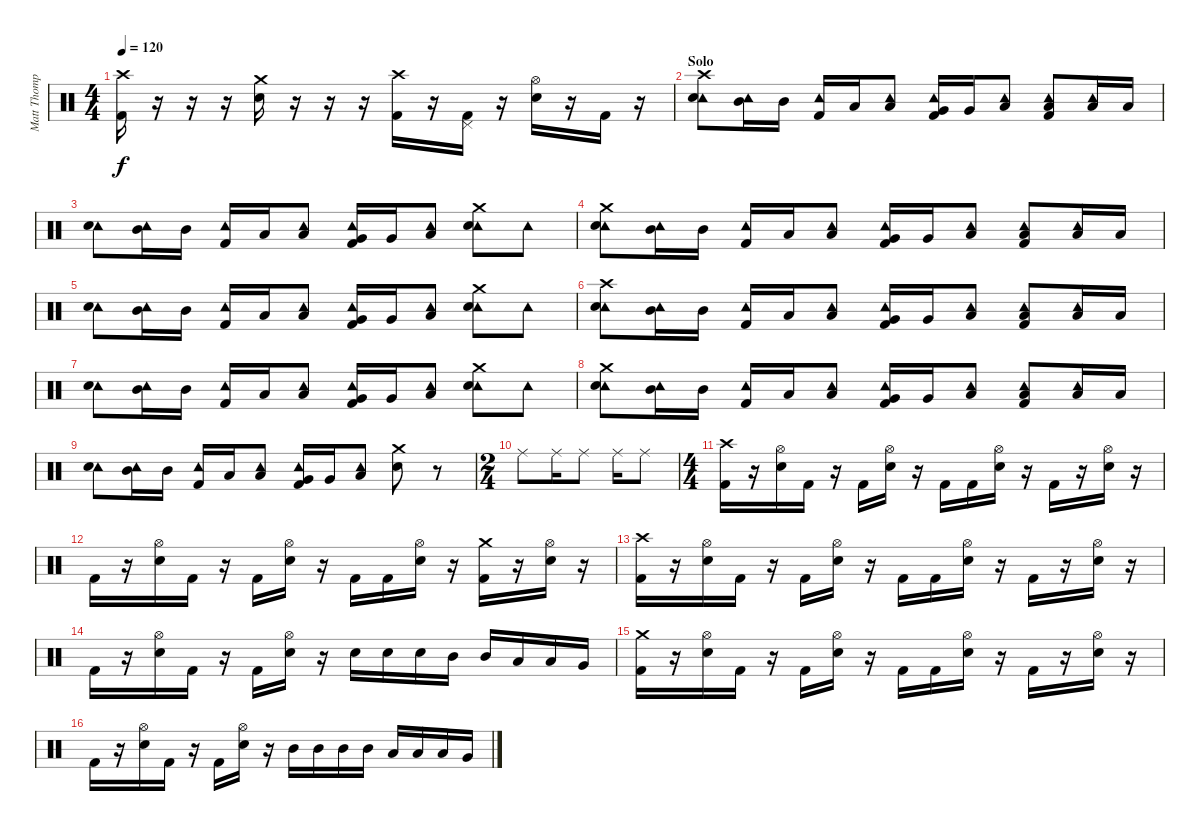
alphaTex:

\track ("Matt Thompson" "Matt Thomp") {instrument percussion}
\staff {score}
\articulation defaults
\ts (4 4)
\tempo 120
\clef neutral
\ks c
("Crash high (hit)" "Kick (hit) 2").16{dy f} r.16 r.16 r.16 ("Crash medium (hit)" "Snare (hit) 2").16 r.16 r.16 r.16 ("Crash high (hit)" "Kick (hit) 2").16 r.16 ("Pedal Hi-Hat (hit)" "Kick (hit) 2").16 r.16 ("Hi-Hat (open)" "Snare (hit) 2").16 r.16 "Kick (hit) 2".16 r.16 |
\section ("" "Solo")
("Crash high (hit)" "Tambourine (hit)" "Snare (hit) 2").8 ("Mid Tom (hit)" "Tambourine (hit)").16 "Mid Tom (hit)".16 ("Tambourine (hit)" "Kick (hit) 2").16 "Low Tom (hit)".16 ("Low Tom (hit)" "Tambourine (hit)").8 ("Very Low Tom (hit)" "Tambourine (hit)" "Kick (hit) 2").16 "Very Low Tom (hit)".16 ("Low Floor Tom (hit)" "Tambourine (hit)").8 ("Low Floor Tom (hit)" "Tambourine (hit)" "Kick (hit) 2").8 ("Low Floor Tom (hit)" "Tambourine (hit)").16 "Low Floor Tom (hit)".16 |
("Tambourine (hit)" "Snare (hit) 2").8 ("Mid Tom (hit)" "Tambourine (hit)").16 "Mid Tom (hit)".16 ("Tambourine (hit)" "Kick (hit) 2").16 "Low Tom (hit)".16 ("Low Tom (hit)" "Tambourine (hit)").8 ("Very Low Tom (hit)" "Tambourine (hit)" "Kick (hit) 2").16 "Very Low Tom (hit)".16 ("Low Floor Tom (hit)" "Tambourine (hit)").8 ("Crash medium (hit)" "Tambourine (hit)" "Snare (hit) 2").8 "Tambourine (hit)".8 |
("Crash medium (hit)" "Tambourine (hit)" "Snare (hit) 2").8 ("Mid Tom (hit)" "Tambourine (hit)").16 "Mid Tom (hit)".16 ("Tambourine (hit)" "Kick (hit) 2").16 "Low Tom (hit)".16 ("Low Tom (hit)" "Tambourine (hit)").8 ("Very Low Tom (hit)" "Tambourine (hit)" "Kick (hit) 2").16 "Very Low Tom (hit)".16 ("Low Floor Tom (hit)" "Tambourine (hit)").8 ("Low Floor Tom (hit)" "Tambourine (hit)" "Kick (hit) 2").8 ("Low Floor Tom (hit)" "Tambourine (hit)").16 "Low Floor Tom (hit)".16 |
("Tambourine (hit)" "Snare (hit) 2").8 ("Mid Tom (hit)" "Tambourine (hit)").16 "Mid Tom (hit)".16 ("Tambourine (hit)" "Kick (hit) 2").16 "Low Tom (hit)".16 ("Low Tom (hit)" "Tambourine (hit)").8 ("Very Low Tom (hit)" "Tambourine (hit)" "Kick (hit) 2").16 "Very Low Tom (hit)".16 ("Low Floor Tom (hit)" "Tambourine (hit)").8 ("Crash medium (hit)" "Tambourine (hit)" "Snare (hit) 2").8 "Tambourine (hit)".8 |
("Crash high (hit)" "Tambourine (hit)" "Snare (hit) 2").8 ("Mid Tom (hit)" "Tambourine (hit)").16 "Mid Tom (hit)".16 ("Tambourine (hit)" "Kick (hit) 2").16 "Low Tom (hit)".16 ("Low Tom (hit)" "Tambourine (hit)").8 ("Very Low Tom (hit)" "Tambourine (hit)" "Kick (hit) 2").16 "Very Low Tom (hit)".16 ("Low Floor Tom (hit)" "Tambourine (hit)").8 ("Low Floor Tom (hit)" "Tambourine (hit)" "Kick (hit) 2").8 ("Low Floor Tom (hit)" "Tambourine (hit)").16 "Low Floor Tom (hit)".16 |
("Tambourine (hit)" "Snare (hit) 2").8 ("Mid Tom (hit)" "Tambourine (hit)").16 "Mid Tom (hit)".16 ("Tambourine (hit)" "Kick (hit) 2").16 "Low Tom (hit)".16 ("Low Tom (hit)" "Tambourine (hit)").8 ("Very Low Tom (hit)" "Tambourine (hit)" "Kick (hit) 2").16 "Very Low Tom (hit)".16 ("Low Floor Tom (hit)" "Tambourine (hit)").8 ("Crash medium (hit)" "Tambourine (hit)" "Snare (hit) 2").8 "Tambourine (hit)".8 |
("Crash medium (hit)" "Tambourine (hit)" "Snare (hit) 2").8 ("Mid Tom (hit)" "Tambourine (hit)").16 "Mid Tom (hit)".16 ("Tambourine (hit)" "Kick (hit) 2").16 "Low Tom (hit)".16 ("Low Tom (hit)" "Tambourine (hit)").8 ("Very Low Tom (hit)" "Tambourine (hit)" "Kick (hit) 2").16 "Very Low Tom (hit)".16 ("Low Floor Tom (hit)" "Tambourine (hit)").8 ("Low Floor Tom (hit)" "Tambourine (hit)" "Kick (hit) 2").8 ("Low Floor Tom (hit)" "Tambourine (hit)").16 "Low Floor Tom (hit)".16 |
("Tambourine (hit)" "Snare (hit) 2").8 ("Mid Tom (hit)" "Tambourine (hit)").16 "Mid Tom (hit)".16 ("Tambourine (hit)" "Kick (hit) 2").16 "Low Tom (hit)".16 ("Low Tom (hit)" "Tambourine (hit)").8 ("Very Low Tom (hit)" "Tambourine (hit)" "Kick (hit) 2").16 "Very Low Tom (hit)".16 ("Low Floor Tom (hit)" "Tambourine (hit)").8 ("Crash medium (hit)" "Snare (hit) 2").8 r.8 |
\ts (2 4)
"Ride (middle)".8 "Ride (middle)".16 "Ride (middle)".8 "Ride (middle)".16 "Ride (middle)".8 |
\ts (4 4)
("Crash high (hit)" "Kick (hit) 2").16 r.16 ("Hi-Hat (open)" "Snare (hit) 2").16 "Kick (hit) 2".16 r.16 "Kick (hit) 2".16 ("Hi-Hat (open)" "Snare (hit) 2").16 r.16 "Kick (hit) 2".16 "Kick (hit) 2".16 ("Hi-Hat (open)" "Snare (hit) 2").16 r.16 "Kick (hit) 2".16 r.16 ("Hi-Hat (open)" "Snare (hit) 2").16 r.16 |
"Kick (hit) 2".16 r.16 ("Hi-Hat (open)" "Snare (hit) 2").16 "Kick (hit) 2".16 r.16 "Kick (hit) 2".16 ("Hi-Hat (open)" "Snare (hit) 2").16 r.16 "Kick (hit) 2".16 "Kick (hit) 2".16 ("Hi-Hat (open)" "Snare (hit) 2").16 r.16 ("Crash medium (hit)" "Kick (hit) 2").16 r.16 ("Hi-Hat (open)" "Snare (hit) 2").16 r.16 |
("Crash high (hit)" "Kick (hit) 2").16 r.16 ("Hi-Hat (open)" "Snare (hit) 2").16 "Kick (hit) 2".16 r.16 "Kick (hit) 2".16 ("Hi-Hat (open)" "Snare (hit) 2").16 r.16 "Kick (hit) 2".16 "Kick (hit) 2".16 ("Hi-Hat (open)" "Snare (hit) 2").16 r.16 "Kick (hit) 2".16 r.16 ("Hi-Hat (open)" "Snare (hit) 2").16 r.16 |
"Kick (hit) 2".16 r.16 ("Hi-Hat (open)" "Snare (hit) 2").16 "Kick (hit) 2".16 r.16 "Kick (hit) 2".16 ("Hi-Hat (open)" "Snare (hit) 2").16 r.16 "Snare (hit) 2".16 "Snare (hit) 2".16 "Snare (hit) 2".16 "Mid Tom (hit)".16 "Mid Tom (hit)".16 "Low Tom (hit)".16 "Low Tom (hit)".16 "Very Low Tom (hit)".16 |
("Crash medium (hit)" "Kick (hit) 2").16 r.16 ("Hi-Hat (open)" "Snare (hit) 2").16 "Kick (hit) 2".16 r.16 "Kick (hit) 2".16 ("Hi-Hat (open)" "Snare (hit) 2").16 r.16 "Kick (hit) 2".16 "Kick (hit) 2".16 ("Hi-Hat (open)" "Snare (hit) 2").16 r.16 "Kick (hit) 2".16 r.16 ("Hi-Hat (open)" "Snare (hit) 2").16 r.16 |
"Kick (hit) 2".16 r.16 ("Hi-Hat (open)" "Snare (hit) 2").16 "Kick (hit) 2".16 r.16 "Kick (hit) 2".16 ("Hi-Hat (open)" "Snare (hit) 2").16 r.16 "Mid Tom (hit)".16 "Mid Tom (hit)".16 "Mid Tom (hit)".16 "Mid Tom (hit)".16 "Low Tom (hit)".16 "Low Tom (hit)".16 "Low Tom (hit)".16 "Very Low Tom (hit)".16
